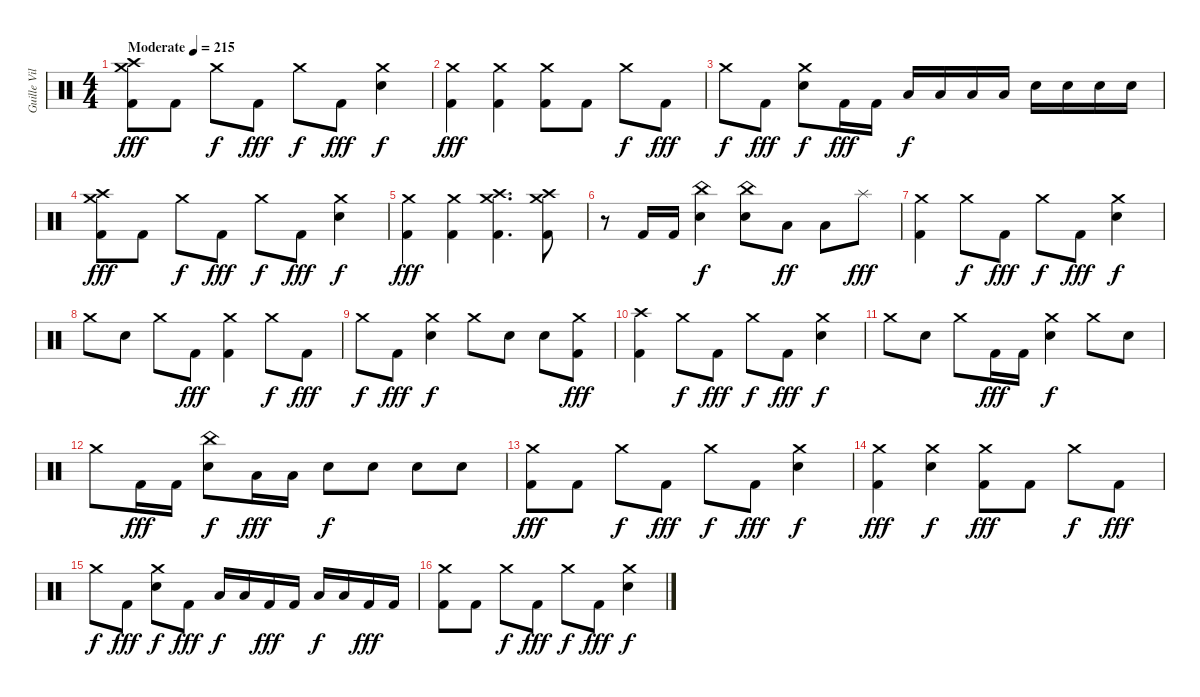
\track ("Guille Vila" "Guille Vil") {instrument percussion}
\staff {score}
\articulation defaults
\ts (4 4)
\tempo (215 "Moderate")
\clef neutral
\ks c
("Crash medium (hit)" "Crash high (hit)" "Kick (hit) 2").8{dy fff} "Kick (hit) 2".8 "Crash medium (hit)".8{dy f} "Kick (hit) 2".8{dy fff} "Crash medium (hit)".8{dy f} "Kick (hit) 2".8{dy fff} ("Crash medium (hit)" "Snare (hit) 2").4{dy f} |
("Crash medium (hit)" "Kick (hit) 2").4{dy fff} ("Crash medium (hit)" "Kick (hit) 2").4 ("Crash medium (hit)" "Kick (hit) 2").8 "Kick (hit) 2".8 "Crash medium (hit)".8{dy f} "Kick (hit) 2".8{dy fff} |
"Crash medium (hit)".8{dy f} "Kick (hit) 2".8{dy fff} ("Crash medium (hit)" "Snare (hit) 2").8{dy f} "Kick (hit) 2".16{dy fff} "Kick (hit) 2".16 "Low Tom (hit)".16{dy f} "Low Tom (hit)".16 "Low Tom (hit)".16 "Low Tom (hit)".16 "Snare (hit) 2".16 "Snare (hit) 2".16 "Snare (hit) 2".16 "Snare (hit) 2".16 |
("Crash medium (hit)" "Crash high (hit)" "Kick (hit) 2").8{dy fff} "Kick (hit) 2".8 "Crash medium (hit)".8{dy f} "Kick (hit) 2".8{dy fff} "Crash medium (hit)".8{dy f} "Kick (hit) 2".8{dy fff} ("Crash medium (hit)" "Snare (hit) 2").4{dy f} |
("Crash medium (hit)" "Kick (hit) 2").4{dy fff} ("Crash medium (hit)" "Kick (hit) 2").4 ("Crash high (hit)" "Crash medium (hit)" "Kick (hit) 2").4{d} ("Crash medium (hit)" "Crash high (hit)" "Kick (hit) 2").8 |
r.8 "Kick (hit) 2".16 "Kick (hit) 2".16 ("China (hit)" "Snare (hit) 2").4{dy f} ("China (hit)" "Snare (hit) 2").8 "Low Tom (hit)".8{dy ff} "Low Floor Tom (hit)".8 "Splash (hit)".8{dy fff} |
("Crash medium (hit)" "Kick (hit) 2").4 "Crash medium (hit)".8{dy f} "Kick (hit) 2".8{dy fff} "Crash medium (hit)".8{dy f} "Kick (hit) 2".8{dy fff} ("Crash medium (hit)" "Snare (hit) 2").4{dy f} |
"Crash medium (hit)".8 "Snare (hit) 2".8 "Crash medium (hit)".8 "Kick (hit) 2".8{dy fff} ("Crash medium (hit)" "Kick (hit) 2").4 "Crash medium (hit)".8{dy f} "Kick (hit) 2".8{dy fff} |
"Crash medium (hit)".8{dy f} "Kick (hit) 2".8{dy fff} ("Crash medium (hit)" "Snare (hit) 2").4{dy f} "Crash medium (hit)".8 "Snare (hit) 2".8 "Snare (hit) 2".8 ("Crash medium (hit)" "Kick (hit) 2").8{dy fff} |
("Crash high (hit)" "Kick (hit) 2").4 "Crash medium (hit)".8{dy f} "Kick (hit) 2".8{dy fff} "Crash medium (hit)".8{dy f} "Kick (hit) 2".8{dy fff} ("Crash medium (hit)" "Snare (hit) 2").4{dy f} |
"Crash medium (hit)".8 "Snare (hit) 2".8 "Crash medium (hit)".8 "Kick (hit) 2".16{dy fff} "Kick (hit) 2".16 ("Crash medium (hit)" "Snare (hit) 2").4{dy f} "Crash medium (hit)".8 "Snare (hit) 2".8 |
"Crash medium (hit)".8 "Kick (hit) 2".16{dy fff} "Kick (hit) 2".16 ("China (hit)" "Snare (hit) 2").8{dy f} "Low Tom (hit)".16{dy fff} "Low Tom (hit)".16 "Snare (hit) 2".8{dy f} "Snare (hit) 2".8 "Snare (hit) 2".8 "Snare (hit) 2".8 |
("Crash medium (hit)" "Kick (hit) 2").8{dy fff} "Kick (hit) 2".8 "Crash medium (hit)".8{dy f} "Kick (hit) 2".8{dy fff} "Crash medium (hit)".8{dy f} "Kick (hit) 2".8{dy fff} ("Crash medium (hit)" "Snare (hit) 2").4{dy f} |
("Crash medium (hit)" "Kick (hit) 2").4{dy fff} ("Crash medium (hit)" "Snare (hit) 2").4{dy f} ("Crash medium (hit)" "Kick (hit) 2").8{dy fff} "Kick (hit) 2".8 "Crash medium (hit)".8{dy f} "Kick (hit) 2".8{dy fff} |
"Crash medium (hit)".8{dy f} "Kick (hit) 2".8{dy fff} ("Crash medium (hit)" "Snare (hit) 2").8{dy f} "Kick (hit) 2".8{dy fff} "Low Tom (hit)".16{dy f} "Low Tom (hit)".16 "Kick (hit) 2".16{dy fff} "Kick (hit) 2".16 "Low Floor Tom (hit)".16{dy f} "Low Floor Tom (hit)".16 "Kick (hit) 2".16{dy fff} "Kick (hit) 2".16 |
("Crash medium (hit)" "Kick (hit) 2").8 "Kick (hit) 2".8 "Crash medium (hit)".8{dy f} "Kick (hit) 2".8{dy fff} "Crash medium (hit)".8{dy f} "Kick (hit) 2".8{dy fff} ("Crash medium (hit)" "Snare (hit) 2").4{dy f}
